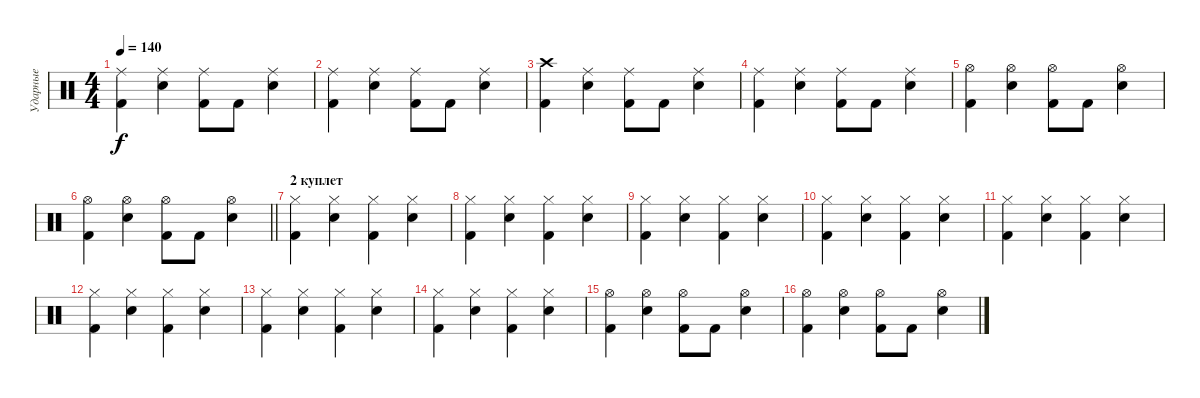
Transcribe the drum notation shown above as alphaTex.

\track ("Ударные" "Ударные") {instrument percussion}
\staff {score}
\articulation defaults
\ts (4 4)
\tempo 140
\clef neutral
\ks c
("Ride (middle)" "Kick (hit) 2").4{dy f} ("Ride (middle)" "Electric Snare (hit)").4 ("Ride (middle)" "Kick (hit) 2").8 "Kick (hit) 2".8 ("Ride (middle)" "Electric Snare (hit)").4 |
("Ride (middle)" "Kick (hit) 2").4 ("Ride (middle)" "Electric Snare (hit)").4 ("Ride (middle)" "Kick (hit) 2").8 "Kick (hit) 2".8 ("Ride (middle)" "Electric Snare (hit)").4 |
("Crash high (hit)" "Kick (hit) 2").4 ("Ride (middle)" "Electric Snare (hit)").4 ("Ride (middle)" "Kick (hit) 2").8 "Kick (hit) 2".8 ("Ride (middle)" "Electric Snare (hit)").4 |
("Ride (middle)" "Kick (hit) 2").4 ("Ride (middle)" "Electric Snare (hit)").4 ("Ride (middle)" "Kick (hit) 2").8 "Kick (hit) 2".8 ("Ride (middle)" "Electric Snare (hit)").4 |
("Hi-Hat (open)" "Kick (hit) 2").4 ("Hi-Hat (open)" "Electric Snare (hit)").4 ("Hi-Hat (open)" "Kick (hit) 2").8 "Kick (hit) 2".8 ("Hi-Hat (open)" "Electric Snare (hit)").4 |
\barLineRight lightlight
("Hi-Hat (open)" "Kick (hit) 2").4 ("Hi-Hat (open)" "Electric Snare (hit)").4 ("Hi-Hat (open)" "Kick (hit) 2").8 "Kick (hit) 2".8 ("Hi-Hat (open)" "Electric Snare (hit)").4 |
\section ("" "2 куплет")
("Hi-Hat (closed)" "Kick (hit) 2").4 ("Hi-Hat (closed)" "Electric Snare (hit)").4 ("Hi-Hat (closed)" "Kick (hit) 2").4 ("Hi-Hat (closed)" "Electric Snare (hit)").4 |
("Hi-Hat (closed)" "Kick (hit) 2").4 ("Hi-Hat (closed)" "Electric Snare (hit)").4 ("Hi-Hat (closed)" "Kick (hit) 2").4 ("Hi-Hat (closed)" "Electric Snare (hit)").4 |
("Hi-Hat (closed)" "Kick (hit) 2").4 ("Hi-Hat (closed)" "Electric Snare (hit)").4 ("Hi-Hat (closed)" "Kick (hit) 2").4 ("Hi-Hat (closed)" "Electric Snare (hit)").4 |
("Hi-Hat (closed)" "Kick (hit) 2").4 ("Hi-Hat (closed)" "Electric Snare (hit)").4 ("Hi-Hat (closed)" "Kick (hit) 2").4 ("Hi-Hat (closed)" "Electric Snare (hit)").4 |
("Hi-Hat (closed)" "Kick (hit) 2").4 ("Hi-Hat (closed)" "Electric Snare (hit)").4 ("Hi-Hat (closed)" "Kick (hit) 2").4 ("Hi-Hat (closed)" "Electric Snare (hit)").4 |
("Hi-Hat (closed)" "Kick (hit) 2").4 ("Hi-Hat (closed)" "Electric Snare (hit)").4 ("Hi-Hat (closed)" "Kick (hit) 2").4 ("Hi-Hat (closed)" "Electric Snare (hit)").4 |
("Hi-Hat (closed)" "Kick (hit) 2").4 ("Hi-Hat (closed)" "Electric Snare (hit)").4 ("Hi-Hat (closed)" "Kick (hit) 2").4 ("Hi-Hat (closed)" "Electric Snare (hit)").4 |
("Hi-Hat (closed)" "Kick (hit) 2").4 ("Hi-Hat (closed)" "Electric Snare (hit)").4 ("Hi-Hat (closed)" "Kick (hit) 2").4 ("Hi-Hat (closed)" "Electric Snare (hit)").4 |
("Hi-Hat (open)" "Kick (hit) 2").4 ("Hi-Hat (open)" "Electric Snare (hit)").4 ("Hi-Hat (open)" "Kick (hit) 2").8 "Kick (hit) 2".8 ("Hi-Hat (open)" "Electric Snare (hit)").4 |
("Hi-Hat (open)" "Kick (hit) 2").4 ("Hi-Hat (open)" "Electric Snare (hit)").4 ("Hi-Hat (open)" "Kick (hit) 2").8 "Kick (hit) 2".8 ("Hi-Hat (open)" "Electric Snare (hit)").4
